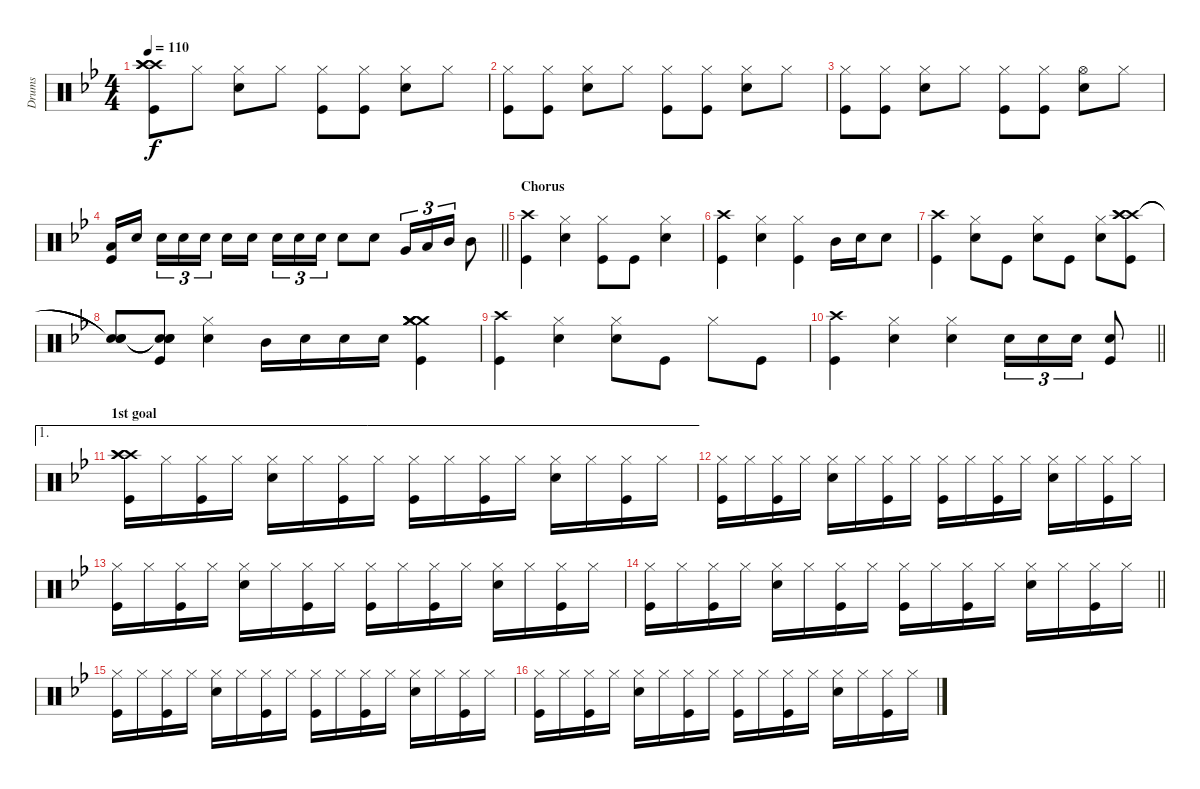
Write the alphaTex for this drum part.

\track ("Drums" "Drums") {instrument percussion}
\staff {score}
\articulation defaults
\ts (4 4)
\tempo 110
\clef neutral
\ks bb
("Crash high (hit)" "Crash high (hit)" "Crash high (hit)" "Kick (hit)").8{dy f} "Hi-Hat (closed)".8 ("Hi-Hat (closed)" "Snare (hit) 2").8 "Hi-Hat (closed)".8 ("Hi-Hat (closed)" "Kick (hit)").8 ("Hi-Hat (closed)" "Kick (hit)").8 ("Hi-Hat (closed)" "Snare (hit) 2").8 "Hi-Hat (closed)".8 |
("Hi-Hat (closed)" "Kick (hit)").8 ("Hi-Hat (closed)" "Kick (hit)").8 ("Hi-Hat (closed)" "Snare (hit) 2").8 "Hi-Hat (closed)".8 ("Hi-Hat (closed)" "Kick (hit)").8 ("Hi-Hat (closed)" "Kick (hit)").8 ("Hi-Hat (closed)" "Snare (hit) 2").8 "Hi-Hat (closed)".8 |
("Hi-Hat (closed)" "Kick (hit)").8 ("Hi-Hat (closed)" "Kick (hit)").8 ("Hi-Hat (closed)" "Snare (hit) 2").8 "Hi-Hat (closed)".8 ("Hi-Hat (closed)" "Kick (hit)").8 ("Hi-Hat (closed)" "Kick (hit)").8 ("Hi-Hat (open)" "Snare (hit) 2").8 "Hi-Hat (closed)".8 |
\barLineRight lightlight
("Low Tom (hit)" "Kick (hit)").16 "Snare (hit) 2".16{beam splitsecondary} "Snare (hit) 2".16{tu (3 2)} "Snare (hit) 2".16{tu (3 2)} "Snare (hit) 2".16{tu (3 2)} "Snare (hit) 2".16 "Snare (hit) 2".16{beam splitsecondary} "Snare (hit) 2".16{tu (3 2)} "Snare (hit) 2".16{tu (3 2)} "Snare (hit) 2".16{tu (3 2)} "Snare (hit) 2".8 "Snare (hit) 2".8 "Very Low Tom (hit)".16{tu (3 2)} "Low Tom (hit)".16{tu (3 2)} "Mid Tom (hit)".16{tu (3 2)} "Mid Tom (hit)".8 |
\section ("" "Chorus")
("Crash high (hit)" "Kick (hit)").4 ("Hi-Hat (closed)" "Snare (hit) 2").4 ("Hi-Hat (closed)" "Kick (hit)").8 "Kick (hit)".8 ("Hi-Hat (closed)" "Snare (hit) 2").4 |
("Crash high (hit)" "Kick (hit)").4 ("Hi-Hat (closed)" "Snare (hit) 2").4 ("Hi-Hat (closed)" "Kick (hit)").4 "Mid Tom (hit)".16 "Snare (hit) 2".16 "Snare (hit) 2".8 |
("Crash high (hit)" "Kick (hit)").4 ("Hi-Hat (closed)" "Snare (hit) 2").8 "Kick (hit)".8 ("Hi-Hat (closed)" "Snare (hit) 2").8 "Kick (hit)".8 ("Hi-Hat (closed)" "Snare (hit) 2").8 ("Crash high (hit)" "Crash high (hit)" "Crash high (hit)" "Kick (hit)").8 |
("Snare (hit)"{t} "Snare (hit)"{t} "Snare (hit)"{t}).8 ("Snare (hit)"{t} "Snare (hit)"{t} "Snare (hit)"{t} "Kick (hit)").8 ("Hi-Hat (closed)" "Snare (hit) 2").4 "Mid Tom (hit)".16 "Snare (hit) 2".16 "Snare (hit) 2".16 "Snare (hit) 2".16 ("Crash medium (hit)" "Crash medium (hit)" "Crash medium (hit)" "Crash medium (hit)" "Kick (hit)").4 |
("Crash high (hit)" "Kick (hit)").4 ("Hi-Hat (closed)" "Snare (hit) 2").4 ("Hi-Hat (closed)" "Snare (hit) 2").8 "Kick (hit)".8 "Hi-Hat (closed)".8 "Kick (hit)".8 |
\barLineRight lightlight
("Crash high (hit)" "Kick (hit)").4 ("Hi-Hat (closed)" "Snare (hit) 2").4 ("Hi-Hat (closed)" "Snare (hit) 2").4 "Snare (hit) 2".16{tu (3 2)} "Snare (hit) 2".16{tu (3 2)} "Snare (hit) 2".16{tu (3 2)} ("Snare (hit) 2" "Kick (hit)").8 |
\ae 1
\section ("" "1st goal")
("Crash high (hit)" "Crash high (hit)" "Crash high (hit)" "Kick (hit)").16 "Hi-Hat (closed)".16 ("Hi-Hat (closed)" "Kick (hit)").16 "Hi-Hat (closed)".16 ("Hi-Hat (closed)" "Snare (hit) 2").16 "Hi-Hat (closed)".16 ("Hi-Hat (closed)" "Kick (hit)").16 "Hi-Hat (closed)".16 ("Hi-Hat (closed)" "Kick (hit)").16 "Hi-Hat (closed)".16 ("Hi-Hat (closed)" "Kick (hit)").16 "Hi-Hat (closed)".16 ("Hi-Hat (closed)" "Snare (hit) 2").16 "Hi-Hat (closed)".16 ("Hi-Hat (closed)" "Kick (hit)").16 "Hi-Hat (closed)".16 |
("Hi-Hat (closed)" "Kick (hit)").16 "Hi-Hat (closed)".16 ("Hi-Hat (closed)" "Kick (hit)").16 "Hi-Hat (closed)".16 ("Hi-Hat (closed)" "Snare (hit) 2").16 "Hi-Hat (closed)".16 ("Hi-Hat (closed)" "Kick (hit)").16 "Hi-Hat (closed)".16 ("Hi-Hat (closed)" "Kick (hit)").16 "Hi-Hat (closed)".16 ("Hi-Hat (closed)" "Kick (hit)").16 "Hi-Hat (closed)".16 ("Hi-Hat (closed)" "Snare (hit) 2").16 "Hi-Hat (closed)".16 ("Hi-Hat (closed)" "Kick (hit)").16 "Hi-Hat (closed)".16 |
("Hi-Hat (closed)" "Kick (hit)").16 "Hi-Hat (closed)".16 ("Hi-Hat (closed)" "Kick (hit)").16 "Hi-Hat (closed)".16 ("Hi-Hat (closed)" "Snare (hit) 2").16 "Hi-Hat (closed)".16 ("Hi-Hat (closed)" "Kick (hit)").16 "Hi-Hat (closed)".16 ("Hi-Hat (closed)" "Kick (hit)").16 "Hi-Hat (closed)".16 ("Hi-Hat (closed)" "Kick (hit)").16 "Hi-Hat (closed)".16 ("Hi-Hat (closed)" "Snare (hit) 2").16 "Hi-Hat (closed)".16 ("Hi-Hat (closed)" "Kick (hit)").16 "Hi-Hat (closed)".16 |
\barLineRight lightlight
("Hi-Hat (closed)" "Kick (hit)").16 "Hi-Hat (closed)".16 ("Hi-Hat (closed)" "Kick (hit)").16 "Hi-Hat (closed)".16 ("Hi-Hat (closed)" "Snare (hit) 2").16 "Hi-Hat (closed)".16 ("Hi-Hat (closed)" "Kick (hit)").16 "Hi-Hat (closed)".16 ("Hi-Hat (closed)" "Kick (hit)").16 "Hi-Hat (closed)".16 ("Hi-Hat (closed)" "Kick (hit)").16 "Hi-Hat (closed)".16 ("Hi-Hat (closed)" "Snare (hit) 2").16 "Hi-Hat (closed)".16 ("Hi-Hat (closed)" "Kick (hit)").16 "Hi-Hat (closed)".16 |
("Hi-Hat (closed)" "Kick (hit)").16 "Hi-Hat (closed)".16 ("Hi-Hat (closed)" "Kick (hit)").16 "Hi-Hat (closed)".16 ("Hi-Hat (closed)" "Snare (hit) 2").16 "Hi-Hat (closed)".16 ("Hi-Hat (closed)" "Kick (hit)").16 "Hi-Hat (closed)".16 ("Hi-Hat (closed)" "Kick (hit)").16 "Hi-Hat (closed)".16 ("Hi-Hat (closed)" "Kick (hit)").16 "Hi-Hat (closed)".16 ("Hi-Hat (closed)" "Snare (hit) 2").16 "Hi-Hat (closed)".16 ("Hi-Hat (closed)" "Kick (hit)").16 "Hi-Hat (closed)".16 |
("Hi-Hat (closed)" "Kick (hit)").16 "Hi-Hat (closed)".16 ("Hi-Hat (closed)" "Kick (hit)").16 "Hi-Hat (closed)".16 ("Hi-Hat (closed)" "Snare (hit) 2").16 "Hi-Hat (closed)".16 ("Hi-Hat (closed)" "Kick (hit)").16 "Hi-Hat (closed)".16 ("Hi-Hat (closed)" "Kick (hit)").16 "Hi-Hat (closed)".16 ("Hi-Hat (closed)" "Kick (hit)").16 "Hi-Hat (closed)".16 ("Hi-Hat (closed)" "Snare (hit) 2").16 "Hi-Hat (closed)".16 ("Hi-Hat (closed)" "Kick (hit)").16 "Hi-Hat (closed)".16
